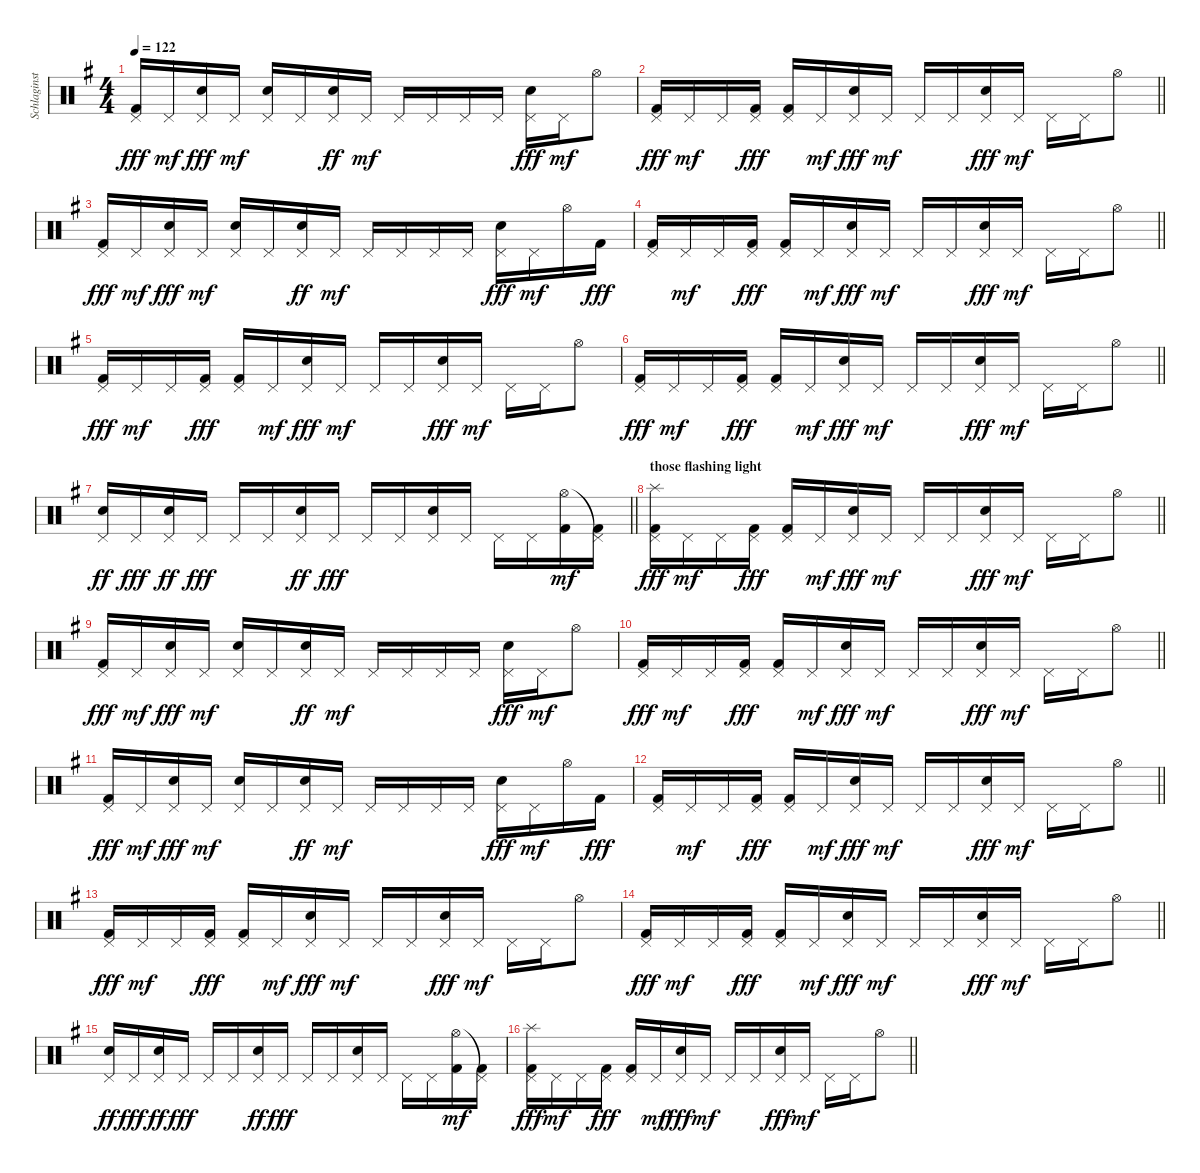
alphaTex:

\track ("Schlaginstrumente - Auswahl" "Schlaginst") {instrument percussion}
\staff {score}
\articulation defaults
\ts (4 4)
\tempo 122
\clef neutral
\ks g
("Pedal Hi-Hat (hit)" "Kick (hit) 2").16{dy fff} "Pedal Hi-Hat (hit)".16{dy mf} ("Pedal Hi-Hat (hit)" "Electric Snare (hit)").16{dy fff} "Pedal Hi-Hat (hit)".16{dy mf} ("Pedal Hi-Hat (hit)" "Electric Snare (hit)").16 "Pedal Hi-Hat (hit)".16 ("Pedal Hi-Hat (hit)" "Electric Snare (hit)").16{dy ff} "Pedal Hi-Hat (hit)".16{dy mf} "Pedal Hi-Hat (hit)".16 "Pedal Hi-Hat (hit)".16 "Pedal Hi-Hat (hit)".16 "Pedal Hi-Hat (hit)".16 ("Pedal Hi-Hat (hit)" "Electric Snare (hit)").16{dy fff} "Pedal Hi-Hat (hit)".16{dy mf} "Hi-Hat (open)".8 |
\barLineRight lightlight
("Pedal Hi-Hat (hit)" "Kick (hit) 2").16{dy fff} "Pedal Hi-Hat (hit)".16{dy mf} "Pedal Hi-Hat (hit)".16 ("Pedal Hi-Hat (hit)" "Kick (hit) 2").16{dy fff} ("Pedal Hi-Hat (hit)" "Kick (hit) 2").16 "Pedal Hi-Hat (hit)".16{dy mf} ("Pedal Hi-Hat (hit)" "Electric Snare (hit)").16{dy fff} "Pedal Hi-Hat (hit)".16{dy mf} "Pedal Hi-Hat (hit)".16 "Pedal Hi-Hat (hit)".16 ("Pedal Hi-Hat (hit)" "Electric Snare (hit)").16{dy fff} "Pedal Hi-Hat (hit)".16{dy mf} "Pedal Hi-Hat (hit)".16 "Pedal Hi-Hat (hit)".16 "Hi-Hat (open)".8 |
("Pedal Hi-Hat (hit)" "Kick (hit) 2").16{dy fff} "Pedal Hi-Hat (hit)".16{dy mf} ("Pedal Hi-Hat (hit)" "Electric Snare (hit)").16{dy fff} "Pedal Hi-Hat (hit)".16{dy mf} ("Pedal Hi-Hat (hit)" "Electric Snare (hit)").16 "Pedal Hi-Hat (hit)".16 ("Pedal Hi-Hat (hit)" "Electric Snare (hit)").16{dy ff} "Pedal Hi-Hat (hit)".16{dy mf} "Pedal Hi-Hat (hit)".16 "Pedal Hi-Hat (hit)".16 "Pedal Hi-Hat (hit)".16 "Pedal Hi-Hat (hit)".16 ("Pedal Hi-Hat (hit)" "Electric Snare (hit)").16{dy fff} "Pedal Hi-Hat (hit)".16{dy mf} "Hi-Hat (open)".16 "Kick (hit) 2".16{dy fff} |
\barLineRight lightlight
("Pedal Hi-Hat (hit)" "Kick (hit) 2").16 "Pedal Hi-Hat (hit)".16{dy mf} "Pedal Hi-Hat (hit)".16 ("Pedal Hi-Hat (hit)" "Kick (hit) 2").16{dy fff} ("Pedal Hi-Hat (hit)" "Kick (hit) 2").16 "Pedal Hi-Hat (hit)".16{dy mf} ("Pedal Hi-Hat (hit)" "Electric Snare (hit)").16{dy fff} "Pedal Hi-Hat (hit)".16{dy mf} "Pedal Hi-Hat (hit)".16 "Pedal Hi-Hat (hit)".16 ("Pedal Hi-Hat (hit)" "Electric Snare (hit)").16{dy fff} "Pedal Hi-Hat (hit)".16{dy mf} "Pedal Hi-Hat (hit)".16 "Pedal Hi-Hat (hit)".16 "Hi-Hat (open)".8 |
("Pedal Hi-Hat (hit)" "Kick (hit) 2").16{dy fff} "Pedal Hi-Hat (hit)".16{dy mf} "Pedal Hi-Hat (hit)".16 ("Pedal Hi-Hat (hit)" "Kick (hit) 2").16{dy fff} ("Pedal Hi-Hat (hit)" "Kick (hit) 2").16 "Pedal Hi-Hat (hit)".16{dy mf} ("Pedal Hi-Hat (hit)" "Electric Snare (hit)").16{dy fff} "Pedal Hi-Hat (hit)".16{dy mf} "Pedal Hi-Hat (hit)".16 "Pedal Hi-Hat (hit)".16 ("Pedal Hi-Hat (hit)" "Electric Snare (hit)").16{dy fff} "Pedal Hi-Hat (hit)".16{dy mf} "Pedal Hi-Hat (hit)".16 "Pedal Hi-Hat (hit)".16 "Hi-Hat (open)".8 |
\barLineRight lightlight
("Pedal Hi-Hat (hit)" "Kick (hit) 2").16{dy fff} "Pedal Hi-Hat (hit)".16{dy mf} "Pedal Hi-Hat (hit)".16 ("Pedal Hi-Hat (hit)" "Kick (hit) 2").16{dy fff} ("Pedal Hi-Hat (hit)" "Kick (hit) 2").16 "Pedal Hi-Hat (hit)".16{dy mf} ("Pedal Hi-Hat (hit)" "Electric Snare (hit)").16{dy fff} "Pedal Hi-Hat (hit)".16{dy mf} "Pedal Hi-Hat (hit)".16 "Pedal Hi-Hat (hit)".16 ("Pedal Hi-Hat (hit)" "Electric Snare (hit)").16{dy fff} "Pedal Hi-Hat (hit)".16{dy mf} "Pedal Hi-Hat (hit)".16 "Pedal Hi-Hat (hit)".16 "Hi-Hat (open)".8 |
\barLineRight lightlight
("Pedal Hi-Hat (hit)" "Electric Snare (hit)").16{dy ff} "Pedal Hi-Hat (hit)".16{dy fff} ("Pedal Hi-Hat (hit)" "Electric Snare (hit)").16{dy ff} "Pedal Hi-Hat (hit)".16{dy fff} "Pedal Hi-Hat (hit)".16 "Pedal Hi-Hat (hit)".16 ("Pedal Hi-Hat (hit)" "Electric Snare (hit)").16{dy ff} "Pedal Hi-Hat (hit)".16{dy fff} "Pedal Hi-Hat (hit)".16 "Pedal Hi-Hat (hit)".16 ("Pedal Hi-Hat (hit)" "Electric Snare (hit)").16 "Pedal Hi-Hat (hit)".16 "Pedal Hi-Hat (hit)".16 "Pedal Hi-Hat (hit)".16 ("Hi-Hat (open)" "Kick (hit) 2").16{dy mf} ("Pedal Hi-Hat (hit)"{t} "Kick (hit) 2").16 |
\section ("" "those flashing light")
\barLineRight lightlight
("Splash (hit)" "Pedal Hi-Hat (hit)" "Kick (hit) 2").16{dy fff} "Pedal Hi-Hat (hit)".16{dy mf} "Pedal Hi-Hat (hit)".16 ("Pedal Hi-Hat (hit)" "Kick (hit) 2").16{dy fff} ("Pedal Hi-Hat (hit)" "Kick (hit) 2").16 "Pedal Hi-Hat (hit)".16{dy mf} ("Pedal Hi-Hat (hit)" "Electric Snare (hit)").16{dy fff} "Pedal Hi-Hat (hit)".16{dy mf} "Pedal Hi-Hat (hit)".16 "Pedal Hi-Hat (hit)".16 ("Pedal Hi-Hat (hit)" "Electric Snare (hit)").16{dy fff} "Pedal Hi-Hat (hit)".16{dy mf} "Pedal Hi-Hat (hit)".16 "Pedal Hi-Hat (hit)".16 "Hi-Hat (open)".8 |
("Pedal Hi-Hat (hit)" "Kick (hit) 2").16{dy fff} "Pedal Hi-Hat (hit)".16{dy mf} ("Pedal Hi-Hat (hit)" "Electric Snare (hit)").16{dy fff} "Pedal Hi-Hat (hit)".16{dy mf} ("Pedal Hi-Hat (hit)" "Electric Snare (hit)").16 "Pedal Hi-Hat (hit)".16 ("Pedal Hi-Hat (hit)" "Electric Snare (hit)").16{dy ff} "Pedal Hi-Hat (hit)".16{dy mf} "Pedal Hi-Hat (hit)".16 "Pedal Hi-Hat (hit)".16 "Pedal Hi-Hat (hit)".16 "Pedal Hi-Hat (hit)".16 ("Pedal Hi-Hat (hit)" "Electric Snare (hit)").16{dy fff} "Pedal Hi-Hat (hit)".16{dy mf} "Hi-Hat (open)".8 |
\barLineRight lightlight
("Pedal Hi-Hat (hit)" "Kick (hit) 2").16{dy fff} "Pedal Hi-Hat (hit)".16{dy mf} "Pedal Hi-Hat (hit)".16 ("Pedal Hi-Hat (hit)" "Kick (hit) 2").16{dy fff} ("Pedal Hi-Hat (hit)" "Kick (hit) 2").16 "Pedal Hi-Hat (hit)".16{dy mf} ("Pedal Hi-Hat (hit)" "Electric Snare (hit)").16{dy fff} "Pedal Hi-Hat (hit)".16{dy mf} "Pedal Hi-Hat (hit)".16 "Pedal Hi-Hat (hit)".16 ("Pedal Hi-Hat (hit)" "Electric Snare (hit)").16{dy fff} "Pedal Hi-Hat (hit)".16{dy mf} "Pedal Hi-Hat (hit)".16 "Pedal Hi-Hat (hit)".16 "Hi-Hat (open)".8 |
("Pedal Hi-Hat (hit)" "Kick (hit) 2").16{dy fff} "Pedal Hi-Hat (hit)".16{dy mf} ("Pedal Hi-Hat (hit)" "Electric Snare (hit)").16{dy fff} "Pedal Hi-Hat (hit)".16{dy mf} ("Pedal Hi-Hat (hit)" "Electric Snare (hit)").16 "Pedal Hi-Hat (hit)".16 ("Pedal Hi-Hat (hit)" "Electric Snare (hit)").16{dy ff} "Pedal Hi-Hat (hit)".16{dy mf} "Pedal Hi-Hat (hit)".16 "Pedal Hi-Hat (hit)".16 "Pedal Hi-Hat (hit)".16 "Pedal Hi-Hat (hit)".16 ("Pedal Hi-Hat (hit)" "Electric Snare (hit)").16{dy fff} "Pedal Hi-Hat (hit)".16{dy mf} "Hi-Hat (open)".16 "Kick (hit) 2".16{dy fff} |
\barLineRight lightlight
("Pedal Hi-Hat (hit)" "Kick (hit) 2").16 "Pedal Hi-Hat (hit)".16{dy mf} "Pedal Hi-Hat (hit)".16 ("Pedal Hi-Hat (hit)" "Kick (hit) 2").16{dy fff} ("Pedal Hi-Hat (hit)" "Kick (hit) 2").16 "Pedal Hi-Hat (hit)".16{dy mf} ("Pedal Hi-Hat (hit)" "Electric Snare (hit)").16{dy fff} "Pedal Hi-Hat (hit)".16{dy mf} "Pedal Hi-Hat (hit)".16 "Pedal Hi-Hat (hit)".16 ("Pedal Hi-Hat (hit)" "Electric Snare (hit)").16{dy fff} "Pedal Hi-Hat (hit)".16{dy mf} "Pedal Hi-Hat (hit)".16 "Pedal Hi-Hat (hit)".16 "Hi-Hat (open)".8 |
("Pedal Hi-Hat (hit)" "Kick (hit) 2").16{dy fff} "Pedal Hi-Hat (hit)".16{dy mf} "Pedal Hi-Hat (hit)".16 ("Pedal Hi-Hat (hit)" "Kick (hit) 2").16{dy fff} ("Pedal Hi-Hat (hit)" "Kick (hit) 2").16 "Pedal Hi-Hat (hit)".16{dy mf} ("Pedal Hi-Hat (hit)" "Electric Snare (hit)").16{dy fff} "Pedal Hi-Hat (hit)".16{dy mf} "Pedal Hi-Hat (hit)".16 "Pedal Hi-Hat (hit)".16 ("Pedal Hi-Hat (hit)" "Electric Snare (hit)").16{dy fff} "Pedal Hi-Hat (hit)".16{dy mf} "Pedal Hi-Hat (hit)".16 "Pedal Hi-Hat (hit)".16 "Hi-Hat (open)".8 |
\barLineRight lightlight
("Pedal Hi-Hat (hit)" "Kick (hit) 2").16{dy fff} "Pedal Hi-Hat (hit)".16{dy mf} "Pedal Hi-Hat (hit)".16 ("Pedal Hi-Hat (hit)" "Kick (hit) 2").16{dy fff} ("Pedal Hi-Hat (hit)" "Kick (hit) 2").16 "Pedal Hi-Hat (hit)".16{dy mf} ("Pedal Hi-Hat (hit)" "Electric Snare (hit)").16{dy fff} "Pedal Hi-Hat (hit)".16{dy mf} "Pedal Hi-Hat (hit)".16 "Pedal Hi-Hat (hit)".16 ("Pedal Hi-Hat (hit)" "Electric Snare (hit)").16{dy fff} "Pedal Hi-Hat (hit)".16{dy mf} "Pedal Hi-Hat (hit)".16 "Pedal Hi-Hat (hit)".16 "Hi-Hat (open)".8 |
("Pedal Hi-Hat (hit)" "Electric Snare (hit)").16{dy ff} "Pedal Hi-Hat (hit)".16{dy fff} ("Pedal Hi-Hat (hit)" "Electric Snare (hit)").16{dy ff} "Pedal Hi-Hat (hit)".16{dy fff} "Pedal Hi-Hat (hit)".16 "Pedal Hi-Hat (hit)".16 ("Pedal Hi-Hat (hit)" "Electric Snare (hit)").16{dy ff} "Pedal Hi-Hat (hit)".16{dy fff} "Pedal Hi-Hat (hit)".16 "Pedal Hi-Hat (hit)".16 ("Pedal Hi-Hat (hit)" "Electric Snare (hit)").16 "Pedal Hi-Hat (hit)".16 "Pedal Hi-Hat (hit)".16 "Pedal Hi-Hat (hit)".16 ("Hi-Hat (open)" "Kick (hit) 2").16{dy mf} ("Pedal Hi-Hat (hit)"{t} "Kick (hit) 2").16 |
\barLineRight lightlight
("Splash (hit)" "Pedal Hi-Hat (hit)" "Kick (hit) 2").16{dy fff} "Pedal Hi-Hat (hit)".16{dy mf} "Pedal Hi-Hat (hit)".16 ("Pedal Hi-Hat (hit)" "Kick (hit) 2").16{dy fff} ("Pedal Hi-Hat (hit)" "Kick (hit) 2").16 "Pedal Hi-Hat (hit)".16{dy mf} ("Pedal Hi-Hat (hit)" "Electric Snare (hit)").16{dy fff} "Pedal Hi-Hat (hit)".16{dy mf} "Pedal Hi-Hat (hit)".16 "Pedal Hi-Hat (hit)".16 ("Pedal Hi-Hat (hit)" "Electric Snare (hit)").16{dy fff} "Pedal Hi-Hat (hit)".16{dy mf} "Pedal Hi-Hat (hit)".16 "Pedal Hi-Hat (hit)".16 "Hi-Hat (open)".8
